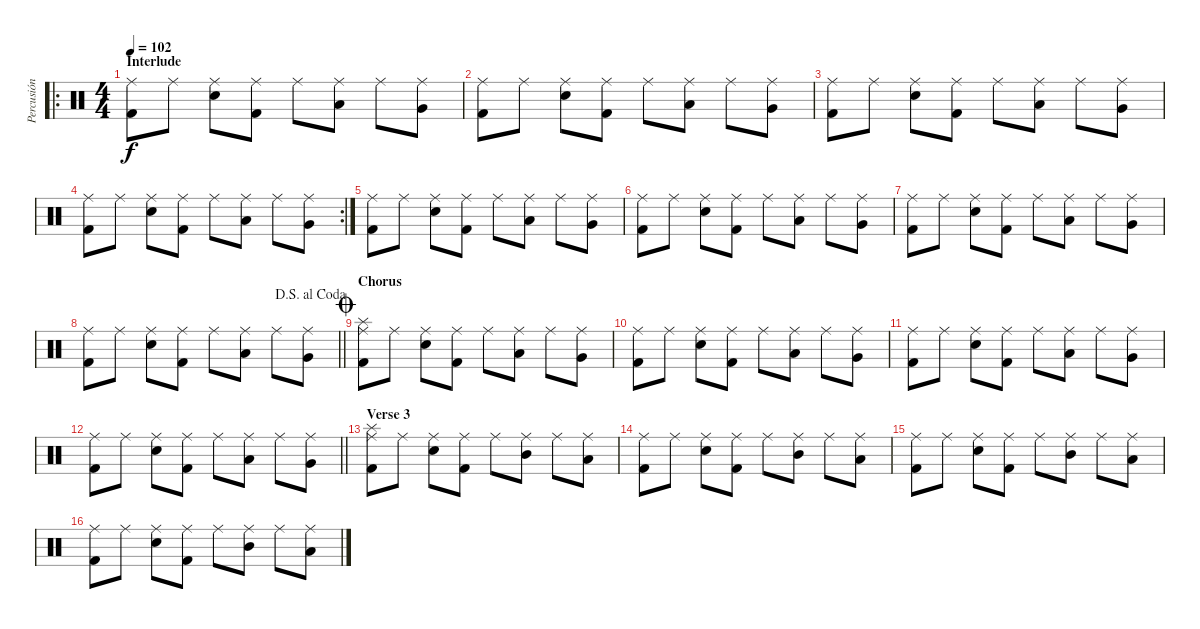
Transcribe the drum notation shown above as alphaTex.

\track ("Percusión" "Percusión") {instrument percussion}
\staff {score}
\articulation defaults
\ro
\ts (4 4)
\section ("" "Interlude")
\tempo 102
\clef neutral
\ks c
("Ride (middle)" "Kick (hit) 2").8{dy f} "Ride (middle)".8 ("Ride (middle)" "Snare (hit) 2").8 ("Ride (middle)" "Kick (hit) 2").8 "Ride (middle)".8 ("Ride (middle)" "Low Tom (hit)").8 "Ride (middle)".8 ("Ride (middle)" "Very Low Tom (hit)").8 |
("Ride (middle)" "Kick (hit) 2").8 "Ride (middle)".8 ("Ride (middle)" "Snare (hit) 2").8 ("Ride (middle)" "Kick (hit) 2").8 "Ride (middle)".8 ("Ride (middle)" "Low Tom (hit)").8 "Ride (middle)".8 ("Ride (middle)" "Very Low Tom (hit)").8 |
("Ride (middle)" "Kick (hit) 2").8 "Ride (middle)".8 ("Ride (middle)" "Snare (hit) 2").8 ("Ride (middle)" "Kick (hit) 2").8 "Ride (middle)".8 ("Ride (middle)" "Low Tom (hit)").8 "Ride (middle)".8 ("Ride (middle)" "Very Low Tom (hit)").8 |
\rc 2
("Ride (middle)" "Kick (hit) 2").8 "Ride (middle)".8 ("Ride (middle)" "Snare (hit) 2").8 ("Ride (middle)" "Kick (hit) 2").8 "Ride (middle)".8 ("Ride (middle)" "Low Tom (hit)").8 "Ride (middle)".8 ("Ride (middle)" "Very Low Tom (hit)").8 |
("Ride (middle)" "Kick (hit) 2").8 "Ride (middle)".8 ("Ride (middle)" "Snare (hit) 2").8 ("Ride (middle)" "Kick (hit) 2").8 "Ride (middle)".8 ("Ride (middle)" "Low Tom (hit)").8 "Ride (middle)".8 ("Ride (middle)" "Very Low Tom (hit)").8 |
("Ride (middle)" "Kick (hit) 2").8 "Ride (middle)".8 ("Ride (middle)" "Snare (hit) 2").8 ("Ride (middle)" "Kick (hit) 2").8 "Ride (middle)".8 ("Ride (middle)" "Low Tom (hit)").8 "Ride (middle)".8 ("Ride (middle)" "Very Low Tom (hit)").8 |
("Ride (middle)" "Kick (hit) 2").8 "Ride (middle)".8 ("Ride (middle)" "Snare (hit) 2").8 ("Ride (middle)" "Kick (hit) 2").8 "Ride (middle)".8 ("Ride (middle)" "Low Tom (hit)").8 "Ride (middle)".8 ("Ride (middle)" "Very Low Tom (hit)").8 |
\jump dalsegnoalcoda
\barLineRight lightlight
("Ride (middle)" "Kick (hit) 2").8 "Ride (middle)".8 ("Ride (middle)" "Snare (hit) 2").8 ("Ride (middle)" "Kick (hit) 2").8 "Ride (middle)".8 ("Ride (middle)" "Low Tom (hit)").8 "Ride (middle)".8 ("Ride (middle)" "Very Low Tom (hit)").8 |
\section ("" "Chorus")
\jump coda
("Splash (hit)" "Ride (middle)" "Kick (hit) 2").8 "Ride (middle)".8 ("Ride (middle)" "Snare (hit) 2").8 ("Ride (middle)" "Kick (hit) 2").8 "Ride (middle)".8 ("Ride (middle)" "Low Tom (hit)").8 "Ride (middle)".8 ("Ride (middle)" "Very Low Tom (hit)").8 |
("Ride (middle)" "Kick (hit) 2").8 "Ride (middle)".8 ("Ride (middle)" "Snare (hit) 2").8 ("Ride (middle)" "Kick (hit) 2").8 "Ride (middle)".8 ("Ride (middle)" "Low Tom (hit)").8 "Ride (middle)".8 ("Ride (middle)" "Very Low Tom (hit)").8 |
("Ride (middle)" "Kick (hit) 2").8 "Ride (middle)".8 ("Ride (middle)" "Snare (hit) 2").8 ("Ride (middle)" "Kick (hit) 2").8 "Ride (middle)".8 ("Ride (middle)" "Low Tom (hit)").8 "Ride (middle)".8 ("Ride (middle)" "Very Low Tom (hit)").8 |
\barLineRight lightlight
("Ride (middle)" "Kick (hit) 2").8 "Ride (middle)".8 ("Ride (middle)" "Snare (hit) 2").8 ("Ride (middle)" "Kick (hit) 2").8 "Ride (middle)".8 ("Ride (middle)" "Low Tom (hit)").8 "Ride (middle)".8 ("Ride (middle)" "Very Low Tom (hit)").8 |
\section ("" "Verse 3")
("Splash (hit)" "Ride (middle)" "Kick (hit) 2").8 "Ride (middle)".8 ("Ride (middle)" "Snare (hit) 2").8 ("Ride (middle)" "Kick (hit) 2").8 "Ride (middle)".8 ("Ride (middle)" "Mid Tom (hit)").8 "Ride (middle)".8 ("Ride (middle)" "Low Tom (hit)").8 |
("Ride (middle)" "Kick (hit) 2").8 "Ride (middle)".8 ("Ride (middle)" "Snare (hit) 2").8 ("Ride (middle)" "Kick (hit) 2").8 "Ride (middle)".8 ("Ride (middle)" "Mid Tom (hit)").8 "Ride (middle)".8 ("Ride (middle)" "Low Tom (hit)").8 |
("Ride (middle)" "Kick (hit) 2").8 "Ride (middle)".8 ("Ride (middle)" "Snare (hit) 2").8 ("Ride (middle)" "Kick (hit) 2").8 "Ride (middle)".8 ("Ride (middle)" "Mid Tom (hit)").8 "Ride (middle)".8 ("Ride (middle)" "Low Tom (hit)").8 |
("Ride (middle)" "Kick (hit) 2").8 "Ride (middle)".8 ("Ride (middle)" "Snare (hit) 2").8 ("Ride (middle)" "Kick (hit) 2").8 "Ride (middle)".8 ("Ride (middle)" "Mid Tom (hit)").8 "Ride (middle)".8 ("Ride (middle)" "Low Tom (hit)").8
